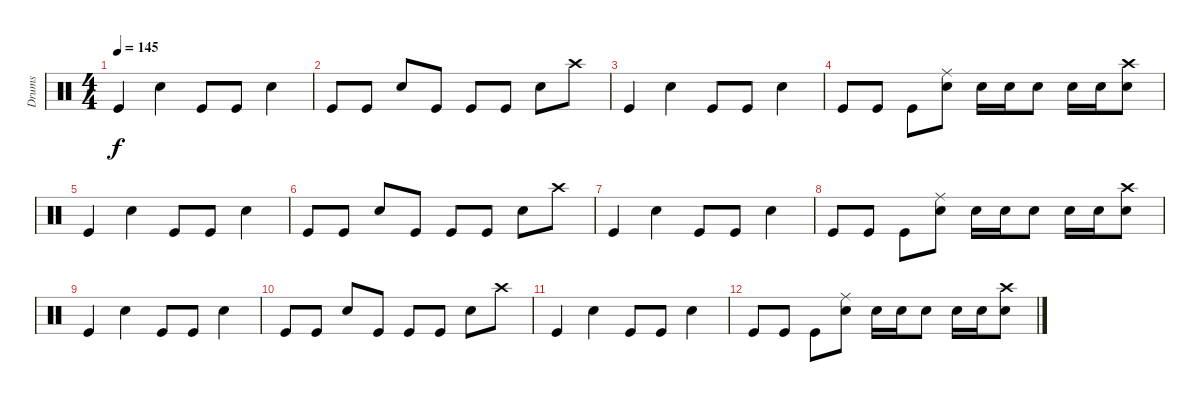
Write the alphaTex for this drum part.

\track ("Drums" "Drums") {instrument percussion}
\staff
\articulation defaults
\ts (4 4)
\tempo 145
\clef neutral
\ks c "Kick (hit)".4{dy f} "Electric Snare (hit)".4 "Kick (hit)".8 "Kick (hit)".8 "Electric Snare (hit)".4
|
"Kick (hit)".8 "Kick (hit)".8 "Electric Snare (hit)".8 "Kick (hit)".8 "Kick (hit)".8 "Kick (hit)".8 "Electric Snare (hit)".8 "Crash high (hit)".8 |
"Kick (hit)".4 "Electric Snare (hit)".4 "Kick (hit)".8 "Kick (hit)".8 "Electric Snare (hit)".4 |
"Kick (hit)".8 "Kick (hit)".8 "Kick (hit)".8 ("Electric Snare (hit)" "Ride (middle)").8 "Electric Snare (hit)".16 "Electric Snare (hit)".16 "Electric Snare (hit)".8 "Electric Snare (hit)".16 "Electric Snare (hit)".16 ("Electric Snare (hit)" "Crash high (hit)").8 |
"Kick (hit)".4 "Electric Snare (hit)".4 "Kick (hit)".8 "Kick (hit)".8 "Electric Snare (hit)".4 |
"Kick (hit)".8 "Kick (hit)".8 "Electric Snare (hit)".8 "Kick (hit)".8 "Kick (hit)".8 "Kick (hit)".8 "Electric Snare (hit)".8 "Crash high (hit)".8 |
"Kick (hit)".4 "Electric Snare (hit)".4 "Kick (hit)".8 "Kick (hit)".8 "Electric Snare (hit)".4 |
"Kick (hit)".8 "Kick (hit)".8 "Kick (hit)".8 ("Electric Snare (hit)" "Ride (middle)").8 "Electric Snare (hit)".16 "Electric Snare (hit)".16 "Electric Snare (hit)".8 "Electric Snare (hit)".16 "Electric Snare (hit)".16 ("Electric Snare (hit)" "Crash high (hit)").8 |
"Kick (hit)".4 "Electric Snare (hit)".4 "Kick (hit)".8 "Kick (hit)".8 "Electric Snare (hit)".4 |
"Kick (hit)".8 "Kick (hit)".8 "Electric Snare (hit)".8 "Kick (hit)".8 "Kick (hit)".8 "Kick (hit)".8 "Electric Snare (hit)".8 "Crash high (hit)".8 |
"Kick (hit)".4 "Electric Snare (hit)".4 "Kick (hit)".8 "Kick (hit)".8 "Electric Snare (hit)".4 |
"Kick (hit)".8 "Kick (hit)".8 "Kick (hit)".8 ("Electric Snare (hit)" "Ride (middle)").8 "Electric Snare (hit)".16 "Electric Snare (hit)".16 "Electric Snare (hit)".8 "Electric Snare (hit)".16 "Electric Snare (hit)".16 ("Electric Snare (hit)" "Crash high (hit)").8
